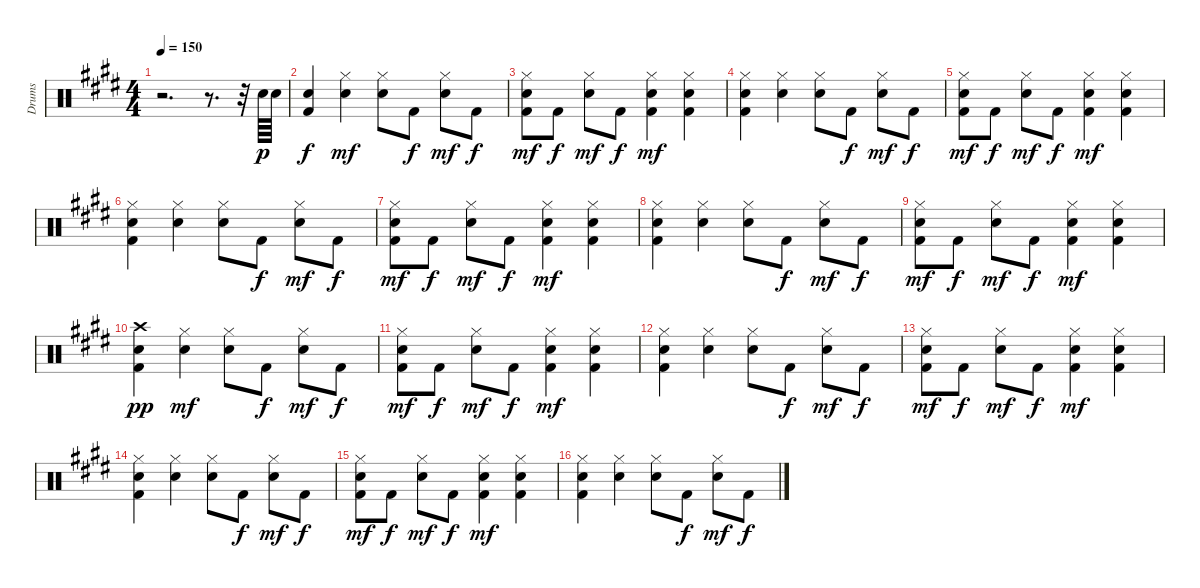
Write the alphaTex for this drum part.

\track ("Drums" "Drums") {instrument percussion}
\staff {score}
\articulation defaults
\ts (4 4)
\tempo 150
\clef neutral
\ks e
r.2{d dy p} r.8{d} r.32 "Electric Snare (hit)".64 "Electric Snare (hit)".64 |
("Electric Snare (hit)" "Kick (hit) 2").4{dy f} ("Hi-Hat (closed)" "Electric Snare (hit)").4{dy mf} ("Hi-Hat (closed)" "Electric Snare (hit)").8 "Kick (hit) 2".8{dy f} ("Hi-Hat (closed)" "Electric Snare (hit)").8{dy mf} "Kick (hit) 2".8{dy f} |
("Hi-Hat (closed)" "Electric Snare (hit)" "Kick (hit) 2").8{dy mf} "Kick (hit) 2".8{dy f} ("Hi-Hat (closed)" "Electric Snare (hit)").8{dy mf} "Kick (hit) 2".8{dy f} ("Hi-Hat (closed)" "Electric Snare (hit)" "Kick (hit) 2").4{dy mf} ("Hi-Hat (closed)" "Electric Snare (hit)" "Kick (hit) 2").4 |
("Hi-Hat (closed)" "Electric Snare (hit)" "Kick (hit) 2").4 ("Hi-Hat (closed)" "Electric Snare (hit)").4 ("Hi-Hat (closed)" "Electric Snare (hit)").8 "Kick (hit) 2".8{dy f} ("Hi-Hat (closed)" "Electric Snare (hit)").8{dy mf} "Kick (hit) 2".8{dy f} |
("Hi-Hat (closed)" "Electric Snare (hit)" "Kick (hit) 2").8{dy mf} "Kick (hit) 2".8{dy f} ("Hi-Hat (closed)" "Electric Snare (hit)").8{dy mf} "Kick (hit) 2".8{dy f} ("Hi-Hat (closed)" "Electric Snare (hit)" "Kick (hit) 2").4{dy mf} ("Hi-Hat (closed)" "Electric Snare (hit)" "Kick (hit) 2").4 |
("Hi-Hat (closed)" "Electric Snare (hit)" "Kick (hit) 2").4 ("Hi-Hat (closed)" "Electric Snare (hit)").4 ("Hi-Hat (closed)" "Electric Snare (hit)").8 "Kick (hit) 2".8{dy f} ("Hi-Hat (closed)" "Electric Snare (hit)").8{dy mf} "Kick (hit) 2".8{dy f} |
("Hi-Hat (closed)" "Electric Snare (hit)" "Kick (hit) 2").8{dy mf} "Kick (hit) 2".8{dy f} ("Hi-Hat (closed)" "Electric Snare (hit)").8{dy mf} "Kick (hit) 2".8{dy f} ("Hi-Hat (closed)" "Electric Snare (hit)" "Kick (hit) 2").4{dy mf} ("Hi-Hat (closed)" "Electric Snare (hit)" "Kick (hit) 2").4 |
("Hi-Hat (closed)" "Electric Snare (hit)" "Kick (hit) 2").4 ("Hi-Hat (closed)" "Electric Snare (hit)").4 ("Hi-Hat (closed)" "Electric Snare (hit)").8 "Kick (hit) 2".8{dy f} ("Hi-Hat (closed)" "Electric Snare (hit)").8{dy mf} "Kick (hit) 2".8{dy f} |
("Hi-Hat (closed)" "Electric Snare (hit)" "Kick (hit) 2").8{dy mf} "Kick (hit) 2".8{dy f} ("Hi-Hat (closed)" "Electric Snare (hit)").8{dy mf} "Kick (hit) 2".8{dy f} ("Hi-Hat (closed)" "Electric Snare (hit)" "Kick (hit) 2").4{dy mf} ("Hi-Hat (closed)" "Electric Snare (hit)" "Kick (hit) 2").4 |
("Crash high (hit)" "Electric Snare (hit)" "Kick (hit) 2").4{dy pp} ("Hi-Hat (closed)" "Electric Snare (hit)").4{dy mf} ("Hi-Hat (closed)" "Electric Snare (hit)").8 "Kick (hit) 2".8{dy f} ("Hi-Hat (closed)" "Electric Snare (hit)").8{dy mf} "Kick (hit) 2".8{dy f} |
("Hi-Hat (closed)" "Electric Snare (hit)" "Kick (hit) 2").8{dy mf} "Kick (hit) 2".8{dy f} ("Hi-Hat (closed)" "Electric Snare (hit)").8{dy mf} "Kick (hit) 2".8{dy f} ("Hi-Hat (closed)" "Electric Snare (hit)" "Kick (hit) 2").4{dy mf} ("Hi-Hat (closed)" "Electric Snare (hit)" "Kick (hit) 2").4 |
("Hi-Hat (closed)" "Electric Snare (hit)" "Kick (hit) 2").4 ("Hi-Hat (closed)" "Electric Snare (hit)").4 ("Hi-Hat (closed)" "Electric Snare (hit)").8 "Kick (hit) 2".8{dy f} ("Hi-Hat (closed)" "Electric Snare (hit)").8{dy mf} "Kick (hit) 2".8{dy f} |
("Hi-Hat (closed)" "Electric Snare (hit)" "Kick (hit) 2").8{dy mf} "Kick (hit) 2".8{dy f} ("Hi-Hat (closed)" "Electric Snare (hit)").8{dy mf} "Kick (hit) 2".8{dy f} ("Hi-Hat (closed)" "Electric Snare (hit)" "Kick (hit) 2").4{dy mf} ("Hi-Hat (closed)" "Electric Snare (hit)" "Kick (hit) 2").4 |
("Hi-Hat (closed)" "Electric Snare (hit)" "Kick (hit) 2").4 ("Hi-Hat (closed)" "Electric Snare (hit)").4 ("Hi-Hat (closed)" "Electric Snare (hit)").8 "Kick (hit) 2".8{dy f} ("Hi-Hat (closed)" "Electric Snare (hit)").8{dy mf} "Kick (hit) 2".8{dy f} |
("Hi-Hat (closed)" "Electric Snare (hit)" "Kick (hit) 2").8{dy mf} "Kick (hit) 2".8{dy f} ("Hi-Hat (closed)" "Electric Snare (hit)").8{dy mf} "Kick (hit) 2".8{dy f} ("Hi-Hat (closed)" "Electric Snare (hit)" "Kick (hit) 2").4{dy mf} ("Hi-Hat (closed)" "Electric Snare (hit)" "Kick (hit) 2").4 |
("Hi-Hat (closed)" "Electric Snare (hit)" "Kick (hit) 2").4 ("Hi-Hat (closed)" "Electric Snare (hit)").4 ("Hi-Hat (closed)" "Electric Snare (hit)").8 "Kick (hit) 2".8{dy f} ("Hi-Hat (closed)" "Electric Snare (hit)").8{dy mf} "Kick (hit) 2".8{dy f}
